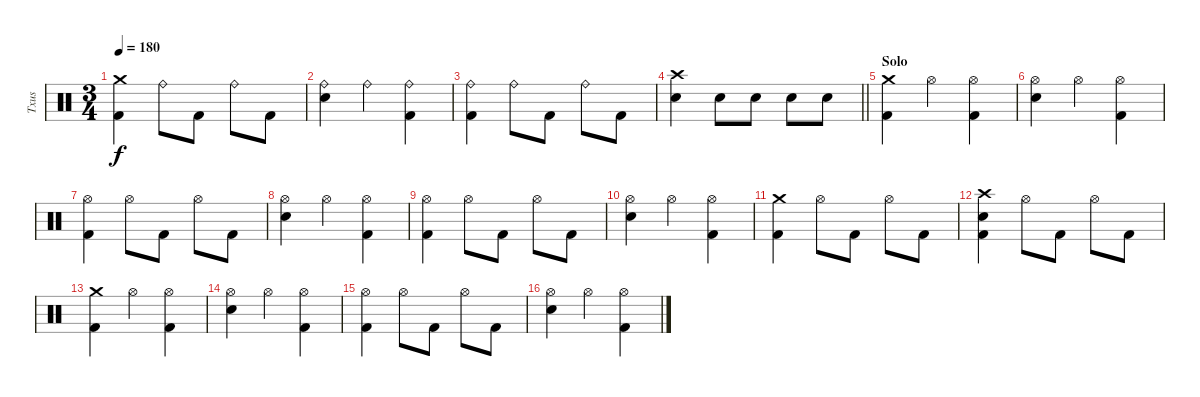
\track ("Txus" "Txus") {instrument percussion}
\staff {score}
\articulation defaults
\ts (3 4)
\tempo 180
\clef neutral
\ks c
("Crash medium (hit)" "Kick (hit) 2").4{dy f} "Ride (bell)".8 "Kick (hit) 2".8 "Ride (bell)".8 "Kick (hit) 2".8 |
("Ride (bell)" "Snare (hit) 2").4 "Ride (bell)".4 ("Ride (bell)" "Kick (hit) 2").4 |
("Ride (bell)" "Kick (hit) 2").4 "Ride (bell)".8 "Kick (hit) 2".8 "Ride (bell)".8 "Kick (hit) 2".8 |
\barLineRight lightlight
("Crash high (hit)" "Snare (hit) 2").4 "Snare (hit) 2".8 "Snare (hit) 2".8 "Snare (hit) 2".8 "Snare (hit) 2".8 |
\section ("" "Solo")
("Crash medium (hit)" "Kick (hit) 2").4 "Hi-Hat (open)".4 ("Hi-Hat (open)" "Kick (hit) 2").4 |
("Hi-Hat (open)" "Snare (hit) 2").4 "Hi-Hat (open)".4 ("Hi-Hat (open)" "Kick (hit) 2").4 |
("Hi-Hat (open)" "Kick (hit) 2").4 "Hi-Hat (open)".8 "Kick (hit) 2".8 "Hi-Hat (open)".8 "Kick (hit) 2".8 |
("Hi-Hat (open)" "Snare (hit) 2").4 "Hi-Hat (open)".4 ("Hi-Hat (open)" "Kick (hit) 2").4 |
("Hi-Hat (open)" "Kick (hit) 2").4 "Hi-Hat (open)".8 "Kick (hit) 2".8 "Hi-Hat (open)".8 "Kick (hit) 2".8 |
("Hi-Hat (open)" "Snare (hit) 2").4 "Hi-Hat (open)".4 ("Hi-Hat (open)" "Kick (hit) 2").4 |
("Crash medium (hit)" "Kick (hit) 2").4 "Hi-Hat (open)".8 "Kick (hit) 2".8 "Hi-Hat (open)".8 "Kick (hit) 2".8 |
("Crash high (hit)" "Snare (hit) 2" "Kick (hit) 2").4 "Hi-Hat (open)".8 "Kick (hit) 2".8 "Hi-Hat (open)".8 "Kick (hit) 2".8 |
("Crash medium (hit)" "Kick (hit) 2").4 "Hi-Hat (open)".4 ("Hi-Hat (open)" "Kick (hit) 2").4 |
("Hi-Hat (open)" "Snare (hit) 2").4 "Hi-Hat (open)".4 ("Hi-Hat (open)" "Kick (hit) 2").4 |
("Hi-Hat (open)" "Kick (hit) 2").4 "Hi-Hat (open)".8 "Kick (hit) 2".8 "Hi-Hat (open)".8 "Kick (hit) 2".8 |
("Hi-Hat (open)" "Snare (hit) 2").4 "Hi-Hat (open)".4 ("Hi-Hat (open)" "Kick (hit) 2").4
